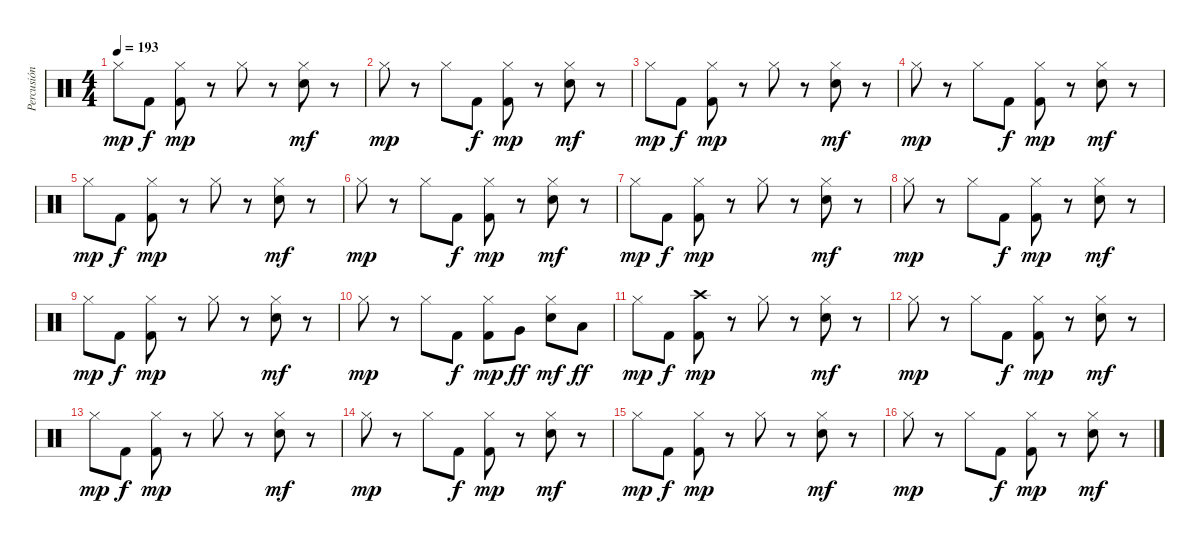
\track ("Percusión" "Percusión") {instrument percussion}
\staff {score}
\articulation defaults
\ts (4 4)
\tempo 193
\clef neutral
\ks c "Hi-Hat (closed)".8{dy mp} "Kick (hit) 2".8{dy f}
("Hi-Hat (closed)" "Kick (hit) 2").8{dy mp} r.8 "Hi-Hat (closed)".8 r.8 ("Hi-Hat (closed)" "Electric Snare (hit)").8{dy mf} r.8 |
"Hi-Hat (closed)".8{dy mp} r.8 "Hi-Hat (closed)".8 "Kick (hit) 2".8{dy f} ("Hi-Hat (closed)" "Kick (hit) 2").8{dy mp} r.8 ("Hi-Hat (closed)" "Electric Snare (hit)").8{dy mf} r.8 |
"Hi-Hat (closed)".8{dy mp} "Kick (hit) 2".8{dy f} ("Hi-Hat (closed)" "Kick (hit) 2").8{dy mp} r.8 "Hi-Hat (closed)".8 r.8 ("Hi-Hat (closed)" "Electric Snare (hit)").8{dy mf} r.8 |
"Hi-Hat (closed)".8{dy mp} r.8 "Hi-Hat (closed)".8 "Kick (hit) 2".8{dy f} ("Hi-Hat (closed)" "Kick (hit) 2").8{dy mp} r.8 ("Hi-Hat (closed)" "Electric Snare (hit)").8{dy mf} r.8 |
"Hi-Hat (closed)".8{dy mp} "Kick (hit) 2".8{dy f} ("Hi-Hat (closed)" "Kick (hit) 2").8{dy mp} r.8 "Hi-Hat (closed)".8 r.8 ("Hi-Hat (closed)" "Electric Snare (hit)").8{dy mf} r.8 |
"Hi-Hat (closed)".8{dy mp} r.8 "Hi-Hat (closed)".8 "Kick (hit) 2".8{dy f} ("Hi-Hat (closed)" "Kick (hit) 2").8{dy mp} r.8 ("Hi-Hat (closed)" "Electric Snare (hit)").8{dy mf} r.8 |
"Hi-Hat (closed)".8{dy mp} "Kick (hit) 2".8{dy f} ("Hi-Hat (closed)" "Kick (hit) 2").8{dy mp} r.8 "Hi-Hat (closed)".8 r.8 ("Hi-Hat (closed)" "Electric Snare (hit)").8{dy mf} r.8 |
"Hi-Hat (closed)".8{dy mp} r.8 "Hi-Hat (closed)".8 "Kick (hit) 2".8{dy f} ("Hi-Hat (closed)" "Kick (hit) 2").8{dy mp} r.8 ("Hi-Hat (closed)" "Electric Snare (hit)").8{dy mf} r.8 |
"Hi-Hat (closed)".8{dy mp} "Kick (hit) 2".8{dy f} ("Hi-Hat (closed)" "Kick (hit) 2").8{dy mp} r.8 "Hi-Hat (closed)".8 r.8 ("Hi-Hat (closed)" "Electric Snare (hit)").8{dy mf} r.8 |
"Hi-Hat (closed)".8{dy mp} r.8 "Hi-Hat (closed)".8 "Kick (hit) 2".8{dy f} ("Hi-Hat (closed)" "Kick (hit) 2").8{dy mp} "Very Low Tom (hit)".8{dy ff} ("Hi-Hat (closed)" "Electric Snare (hit)").8{dy mf} "Low Tom (hit)".8{dy ff} |
"Hi-Hat (closed)".8{dy mp} "Kick (hit) 2".8{dy f} ("Crash high (hit)" "Kick (hit) 2").8{dy mp} r.8 "Hi-Hat (closed)".8 r.8 ("Hi-Hat (closed)" "Electric Snare (hit)").8{dy mf} r.8 |
"Hi-Hat (closed)".8{dy mp} r.8 "Hi-Hat (closed)".8 "Kick (hit) 2".8{dy f} ("Hi-Hat (closed)" "Kick (hit) 2").8{dy mp} r.8 ("Hi-Hat (closed)" "Electric Snare (hit)").8{dy mf} r.8 |
"Hi-Hat (closed)".8{dy mp} "Kick (hit) 2".8{dy f} ("Hi-Hat (closed)" "Kick (hit) 2").8{dy mp} r.8 "Hi-Hat (closed)".8 r.8 ("Hi-Hat (closed)" "Electric Snare (hit)").8{dy mf} r.8 |
"Hi-Hat (closed)".8{dy mp} r.8 "Hi-Hat (closed)".8 "Kick (hit) 2".8{dy f} ("Hi-Hat (closed)" "Kick (hit) 2").8{dy mp} r.8 ("Hi-Hat (closed)" "Electric Snare (hit)").8{dy mf} r.8 |
"Hi-Hat (closed)".8{dy mp} "Kick (hit) 2".8{dy f} ("Hi-Hat (closed)" "Kick (hit) 2").8{dy mp} r.8 "Hi-Hat (closed)".8 r.8 ("Hi-Hat (closed)" "Electric Snare (hit)").8{dy mf} r.8 |
"Hi-Hat (closed)".8{dy mp} r.8 "Hi-Hat (closed)".8 "Kick (hit) 2".8{dy f} ("Hi-Hat (closed)" "Kick (hit) 2").8{dy mp} r.8 ("Hi-Hat (closed)" "Electric Snare (hit)").8{dy mf} r.8
